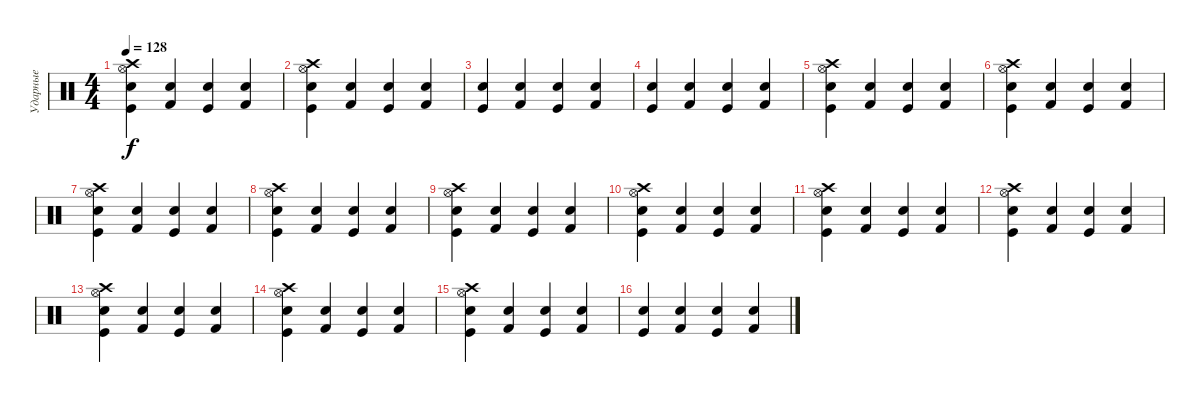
\track ("Ударные" "Ударные") {instrument percussion}
\staff {score}
\articulation defaults
\ts (4 4)
\tempo 128
\clef neutral
\ks c
("Kick (hit)" "Electric Snare (hit)" "Crash high (hit)" "Hi-Hat (open)").4{dy f} ("Kick (hit) 2" "Snare (hit) 2").4 ("Kick (hit)" "Electric Snare (hit)").4 ("Kick (hit) 2" "Snare (hit) 2").4 |
("Kick (hit)" "Electric Snare (hit)" "Crash high (hit)" "Hi-Hat (open)").4 ("Kick (hit) 2" "Snare (hit) 2").4 ("Kick (hit)" "Electric Snare (hit)").4 ("Kick (hit) 2" "Snare (hit) 2").4 |
("Kick (hit)" "Electric Snare (hit)").4 ("Kick (hit) 2" "Snare (hit) 2").4 ("Kick (hit)" "Electric Snare (hit)").4 ("Kick (hit) 2" "Snare (hit) 2").4 |
("Kick (hit)" "Electric Snare (hit)").4 ("Kick (hit) 2" "Snare (hit) 2").4 ("Kick (hit)" "Electric Snare (hit)").4 ("Kick (hit) 2" "Snare (hit) 2").4 |
("Kick (hit)" "Electric Snare (hit)" "Crash high (hit)" "Hi-Hat (open)").4 ("Kick (hit) 2" "Snare (hit) 2").4 ("Kick (hit)" "Electric Snare (hit)").4 ("Kick (hit) 2" "Snare (hit) 2").4 |
("Kick (hit)" "Electric Snare (hit)" "Crash high (hit)" "Hi-Hat (open)").4 ("Kick (hit) 2" "Snare (hit) 2").4 ("Kick (hit)" "Electric Snare (hit)").4 ("Kick (hit) 2" "Snare (hit) 2").4 |
("Kick (hit)" "Electric Snare (hit)" "Crash high (hit)" "Hi-Hat (open)").4 ("Kick (hit) 2" "Snare (hit) 2").4 ("Kick (hit)" "Electric Snare (hit)").4 ("Kick (hit) 2" "Snare (hit) 2").4 |
("Kick (hit)" "Electric Snare (hit)" "Crash high (hit)" "Hi-Hat (open)").4 ("Kick (hit) 2" "Snare (hit) 2").4 ("Kick (hit)" "Electric Snare (hit)").4 ("Kick (hit) 2" "Snare (hit) 2").4 |
("Kick (hit)" "Electric Snare (hit)" "Crash high (hit)" "Hi-Hat (open)").4 ("Kick (hit) 2" "Snare (hit) 2").4 ("Kick (hit)" "Electric Snare (hit)").4 ("Kick (hit) 2" "Snare (hit) 2").4 |
("Kick (hit)" "Electric Snare (hit)" "Crash high (hit)" "Hi-Hat (open)").4 ("Kick (hit) 2" "Snare (hit) 2").4 ("Kick (hit)" "Electric Snare (hit)").4 ("Kick (hit) 2" "Snare (hit) 2").4 |
("Kick (hit)" "Electric Snare (hit)" "Crash high (hit)" "Hi-Hat (open)").4 ("Kick (hit) 2" "Snare (hit) 2").4 ("Kick (hit)" "Electric Snare (hit)").4 ("Kick (hit) 2" "Snare (hit) 2").4 |
("Kick (hit)" "Electric Snare (hit)" "Crash high (hit)" "Hi-Hat (open)").4 ("Kick (hit) 2" "Snare (hit) 2").4 ("Kick (hit)" "Electric Snare (hit)").4 ("Kick (hit) 2" "Snare (hit) 2").4 |
("Kick (hit)" "Electric Snare (hit)" "Crash high (hit)" "Hi-Hat (open)").4 ("Kick (hit) 2" "Snare (hit) 2").4 ("Kick (hit)" "Electric Snare (hit)").4 ("Kick (hit) 2" "Snare (hit) 2").4 |
("Kick (hit)" "Electric Snare (hit)" "Crash high (hit)" "Hi-Hat (open)").4 ("Kick (hit) 2" "Snare (hit) 2").4 ("Kick (hit)" "Electric Snare (hit)").4 ("Kick (hit) 2" "Snare (hit) 2").4 |
("Kick (hit)" "Electric Snare (hit)" "Crash high (hit)" "Hi-Hat (open)").4 ("Kick (hit) 2" "Snare (hit) 2").4 ("Kick (hit)" "Electric Snare (hit)").4 ("Kick (hit) 2" "Snare (hit) 2").4 |
("Kick (hit)" "Electric Snare (hit)").4 ("Kick (hit) 2" "Snare (hit) 2").4 ("Kick (hit)" "Electric Snare (hit)").4 ("Kick (hit) 2" "Snare (hit) 2").4
